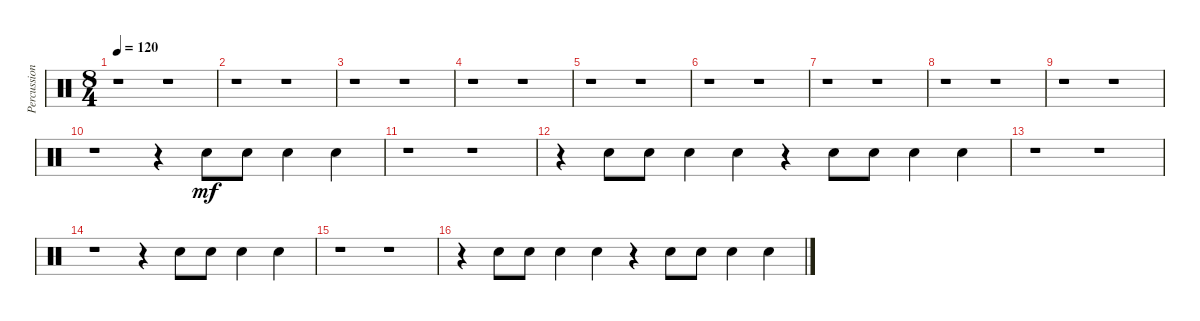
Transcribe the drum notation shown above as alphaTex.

\track ("Percussion" "Percussion") {instrument percussion}
\staff {score}
\articulation defaults
\ts (8 4)
\tempo 120
\clef neutral
\ks c
r.1{dy f} r.1 |
r.1 r.1 |
r.1 r.1 |
r.1 r.1 |
r.1 r.1 |
r.1 r.1 |
r.1 r.1 |
r.1 r.1 |
r.1 r.1 |
r.1 r.4 "Snare (hit) 2".8{dy mf} "Snare (hit) 2".8 "Snare (hit) 2".4 "Snare (hit) 2".4 |
r.1 r.1 |
r.4 "Snare (hit) 2".8 "Snare (hit) 2".8 "Snare (hit) 2".4 "Snare (hit) 2".4 r.4 "Snare (hit) 2".8 "Snare (hit) 2".8 "Snare (hit) 2".4 "Snare (hit) 2".4 |
r.1 r.1 |
r.1 r.4 "Snare (hit) 2".8 "Snare (hit) 2".8 "Snare (hit) 2".4 "Snare (hit) 2".4 |
r.1 r.1 |
r.4 "Snare (hit) 2".8 "Snare (hit) 2".8 "Snare (hit) 2".4 "Snare (hit) 2".4 r.4 "Snare (hit) 2".8 "Snare (hit) 2".8 "Snare (hit) 2".4 "Snare (hit) 2".4
